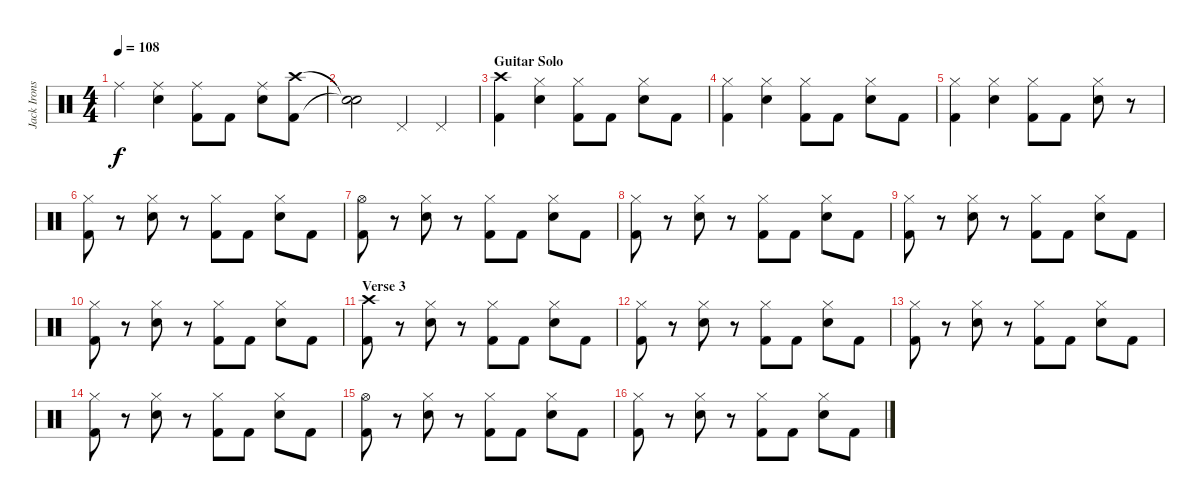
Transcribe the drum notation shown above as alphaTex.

\track ("Jack Irons" "Jack Irons") {instrument percussion}
\staff {score}
\articulation defaults
\ts (4 4)
\tempo 108
\clef neutral
\ks c "Ride (middle)".4{dy f}
("Electric Snare (hit)" "Ride (middle)").4 ("Kick (hit) 2" "Ride (middle)").8 "Kick (hit) 2".8 ("Electric Snare (hit)" "Ride (middle)").8 ("Kick (hit) 2" "Crash high (hit)").8 |
("Snare (hit)"{t} "Snare (hit)"{t}).2 "Pedal Hi-Hat (hit)".4 "Pedal Hi-Hat (hit)".4 |
\section ("" "Guitar Solo")
("Crash high (hit)" "Kick (hit) 2").4 ("Electric Snare (hit)" "Hi-Hat (closed)").4 ("Kick (hit) 2" "Hi-Hat (closed)").8 "Kick (hit) 2".8 ("Electric Snare (hit)" "Hi-Hat (closed)").8 "Kick (hit) 2".8 |
("Kick (hit) 2" "Hi-Hat (closed)").4 ("Electric Snare (hit)" "Hi-Hat (closed)").4 ("Kick (hit) 2" "Hi-Hat (closed)").8 "Kick (hit) 2".8 ("Electric Snare (hit)" "Hi-Hat (closed)").8 "Kick (hit) 2".8 |
("Kick (hit) 2" "Hi-Hat (closed)").4 ("Electric Snare (hit)" "Hi-Hat (closed)").4 ("Kick (hit) 2" "Hi-Hat (closed)").8 "Kick (hit) 2".8 ("Electric Snare (hit)" "Hi-Hat (closed)").8 r.8 |
("Kick (hit) 2" "Hi-Hat (closed)").8 r.8 ("Electric Snare (hit)" "Hi-Hat (closed)").8 r.8 ("Kick (hit) 2" "Hi-Hat (closed)").8 "Kick (hit) 2".8 ("Electric Snare (hit)" "Hi-Hat (closed)").8 "Kick (hit) 2".8 |
("Kick (hit) 2" "Hi-Hat (open)").8 r.8 ("Electric Snare (hit)" "Hi-Hat (closed)").8 r.8 ("Kick (hit) 2" "Hi-Hat (closed)").8 "Kick (hit) 2".8 ("Electric Snare (hit)" "Hi-Hat (closed)").8 "Kick (hit) 2".8 |
("Kick (hit) 2" "Hi-Hat (closed)").8 r.8 ("Electric Snare (hit)" "Hi-Hat (closed)").8 r.8 ("Kick (hit) 2" "Hi-Hat (closed)").8 "Kick (hit) 2".8 ("Electric Snare (hit)" "Hi-Hat (closed)").8 "Kick (hit) 2".8 |
("Kick (hit) 2" "Hi-Hat (closed)").8 r.8 ("Electric Snare (hit)" "Hi-Hat (closed)").8 r.8 ("Kick (hit) 2" "Hi-Hat (closed)").8 "Kick (hit) 2".8 ("Electric Snare (hit)" "Hi-Hat (closed)").8 "Kick (hit) 2".8 |
("Kick (hit) 2" "Hi-Hat (closed)").8 r.8 ("Electric Snare (hit)" "Hi-Hat (closed)").8 r.8 ("Kick (hit) 2" "Hi-Hat (closed)").8 "Kick (hit) 2".8 ("Electric Snare (hit)" "Hi-Hat (closed)").8 "Kick (hit) 2".8 |
\section ("" "Verse 3")
("Kick (hit) 2" "Crash high (hit)").8 r.8 ("Electric Snare (hit)" "Hi-Hat (closed)").8 r.8 ("Kick (hit) 2" "Hi-Hat (closed)").8 "Kick (hit) 2".8 ("Electric Snare (hit)" "Hi-Hat (closed)").8 "Kick (hit) 2".8 |
("Kick (hit) 2" "Hi-Hat (closed)").8 r.8 ("Electric Snare (hit)" "Hi-Hat (closed)").8 r.8 ("Kick (hit) 2" "Hi-Hat (closed)").8 "Kick (hit) 2".8 ("Electric Snare (hit)" "Hi-Hat (closed)").8 "Kick (hit) 2".8 |
("Kick (hit) 2" "Hi-Hat (closed)").8 r.8 ("Electric Snare (hit)" "Hi-Hat (closed)").8 r.8 ("Kick (hit) 2" "Hi-Hat (closed)").8 "Kick (hit) 2".8 ("Electric Snare (hit)" "Hi-Hat (closed)").8 "Kick (hit) 2".8 |
("Kick (hit) 2" "Hi-Hat (closed)").8 r.8 ("Electric Snare (hit)" "Hi-Hat (closed)").8 r.8 ("Kick (hit) 2" "Hi-Hat (closed)").8 "Kick (hit) 2".8 ("Electric Snare (hit)" "Hi-Hat (closed)").8 "Kick (hit) 2".8 |
("Kick (hit) 2" "Hi-Hat (open)").8 r.8 ("Electric Snare (hit)" "Hi-Hat (closed)").8 r.8 ("Kick (hit) 2" "Hi-Hat (closed)").8 "Kick (hit) 2".8 ("Electric Snare (hit)" "Hi-Hat (closed)").8 "Kick (hit) 2".8 |
("Kick (hit) 2" "Hi-Hat (closed)").8 r.8 ("Electric Snare (hit)" "Hi-Hat (closed)").8 r.8 ("Kick (hit) 2" "Hi-Hat (closed)").8 "Kick (hit) 2".8 ("Electric Snare (hit)" "Hi-Hat (closed)").8 "Kick (hit) 2".8
